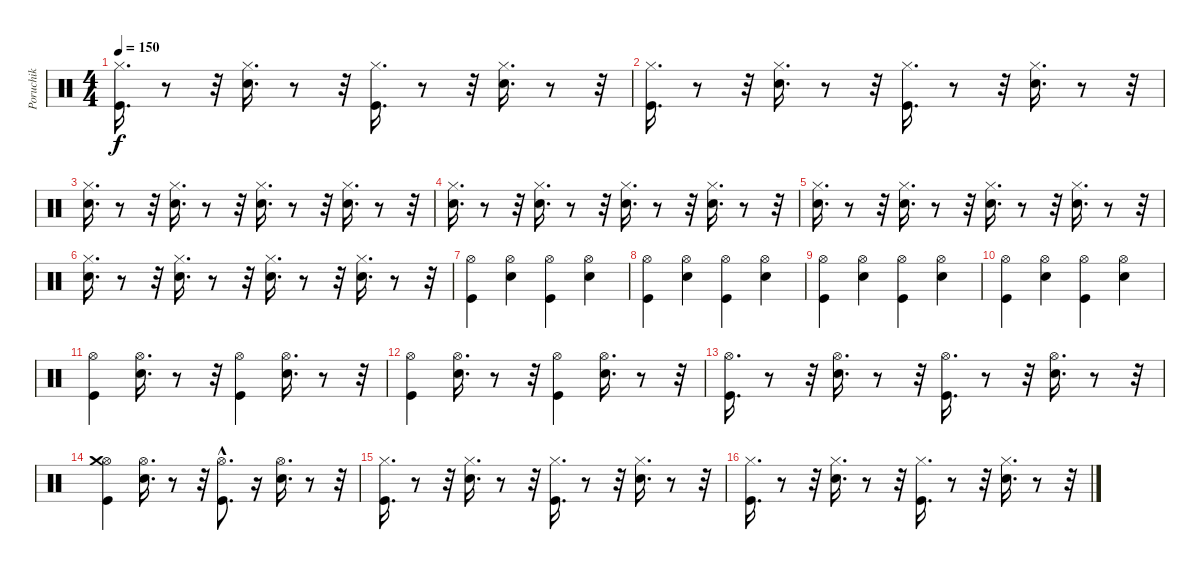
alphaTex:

\track ("Poruchik" "Poruchik") {instrument percussion}
\staff {score}
\articulation defaults
\ts (4 4)
\tempo 150
\clef neutral
\ks c
("Kick (hit)" "Hi-Hat (closed)").16{d dy f} r.8 r.32 ("Hi-Hat (closed)" "Electric Snare (hit)").16{d} r.8 r.32 ("Hi-Hat (closed)" "Kick (hit)").16{d} r.8 r.32 ("Electric Snare (hit)" "Hi-Hat (closed)").16{d} r.8 r.32 |
("Hi-Hat (closed)" "Kick (hit)").16{d} r.8 r.32 ("Hi-Hat (closed)" "Electric Snare (hit)").16{d} r.8 r.32 ("Kick (hit)" "Hi-Hat (closed)").16{d} r.8 r.32 ("Hi-Hat (closed)" "Electric Snare (hit)").16{d} r.8 r.32 |
("Hi-Hat (closed)" "Electric Snare (hit)").16{d} r.8 r.32 ("Electric Snare (hit)" "Hi-Hat (closed)").16{d} r.8 r.32 ("Electric Snare (hit)" "Hi-Hat (closed)").16{d} r.8 r.32 ("Electric Snare (hit)" "Hi-Hat (closed)").16{d} r.8 r.32 |
("Hi-Hat (closed)" "Electric Snare (hit)").16{d} r.8 r.32 ("Hi-Hat (closed)" "Electric Snare (hit)").16{d} r.8 r.32 ("Electric Snare (hit)" "Hi-Hat (closed)").16{d} r.8 r.32 ("Hi-Hat (closed)" "Electric Snare (hit)").16{d} r.8 r.32 |
("Hi-Hat (closed)" "Electric Snare (hit)").16{d} r.8 r.32 ("Electric Snare (hit)" "Hi-Hat (closed)").16{d} r.8 r.32 ("Electric Snare (hit)" "Hi-Hat (closed)").16{d} r.8 r.32 ("Hi-Hat (closed)" "Electric Snare (hit)").16{d} r.8 r.32 |
("Electric Snare (hit)" "Hi-Hat (closed)").16{d} r.8 r.32 ("Electric Snare (hit)" "Hi-Hat (closed)").16{d} r.8 r.32 ("Electric Snare (hit)" "Hi-Hat (closed)").16{d} r.8 r.32 ("Electric Snare (hit)" "Hi-Hat (closed)").16{d} r.8 r.32 |
("Hi-Hat (open)" "Kick (hit)").4 ("Electric Snare (hit)" "Hi-Hat (open)").4 ("Kick (hit)" "Hi-Hat (open)").4 ("Electric Snare (hit)" "Hi-Hat (open)").4 |
("Kick (hit)" "Hi-Hat (open)").4 ("Electric Snare (hit)" "Hi-Hat (open)").4 ("Hi-Hat (open)" "Kick (hit)").4 ("Electric Snare (hit)" "Hi-Hat (open)").4 |
("Kick (hit)" "Hi-Hat (open)").4 ("Hi-Hat (open)" "Electric Snare (hit)").4 ("Kick (hit)" "Hi-Hat (open)").4 ("Electric Snare (hit)" "Hi-Hat (open)").4 |
("Hi-Hat (open)" "Kick (hit)").4 ("Electric Snare (hit)" "Hi-Hat (open)").4 ("Kick (hit)" "Hi-Hat (open)").4 ("Electric Snare (hit)" "Hi-Hat (open)").4 |
("Hi-Hat (open)" "Kick (hit)").4 ("Hi-Hat (open)" "Electric Snare (hit)").16{d} r.8 r.32 ("Hi-Hat (open)" "Kick (hit)").4 ("Hi-Hat (open)" "Electric Snare (hit)").16{d} r.8 r.32 |
("Hi-Hat (open)" "Kick (hit)").4 ("Electric Snare (hit)" "Hi-Hat (open)").16{d} r.8 r.32 ("Hi-Hat (open)" "Kick (hit)").4 ("Hi-Hat (open)" "Electric Snare (hit)").16{d} r.8 r.32 |
("Kick (hit)" "Hi-Hat (open)").16{d} r.8 r.32 ("Electric Snare (hit)" "Hi-Hat (open)").16{d} r.8 r.32 ("Hi-Hat (open)" "Kick (hit)").16{d} r.8 r.32 ("Electric Snare (hit)" "Hi-Hat (open)").16{d} r.8 r.32 |
("Hi-Hat (open)" "Crash medium (hit)" "Kick (hit)").4 ("Electric Snare (hit)" "Hi-Hat (open)").16{d} r.8 r.32 ("Hi-Hat (open)" "Kick (hit)"{hac}).8{d} r.16 ("Hi-Hat (open)" "Electric Snare (hit)").16{d} r.8 r.32 |
("Hi-Hat (closed)" "Kick (hit)").16{d} r.8 r.32 ("Electric Snare (hit)" "Hi-Hat (closed)").16{d} r.8 r.32 ("Kick (hit)" "Hi-Hat (closed)").16{d} r.8 r.32 ("Electric Snare (hit)" "Hi-Hat (closed)").16{d} r.8 r.32 |
("Kick (hit)" "Hi-Hat (closed)").16{d} r.8 r.32 ("Electric Snare (hit)" "Hi-Hat (closed)").16{d} r.8 r.32 ("Kick (hit)" "Hi-Hat (closed)").16{d} r.8 r.32 ("Hi-Hat (closed)" "Electric Snare (hit)").16{d} r.8 r.32
